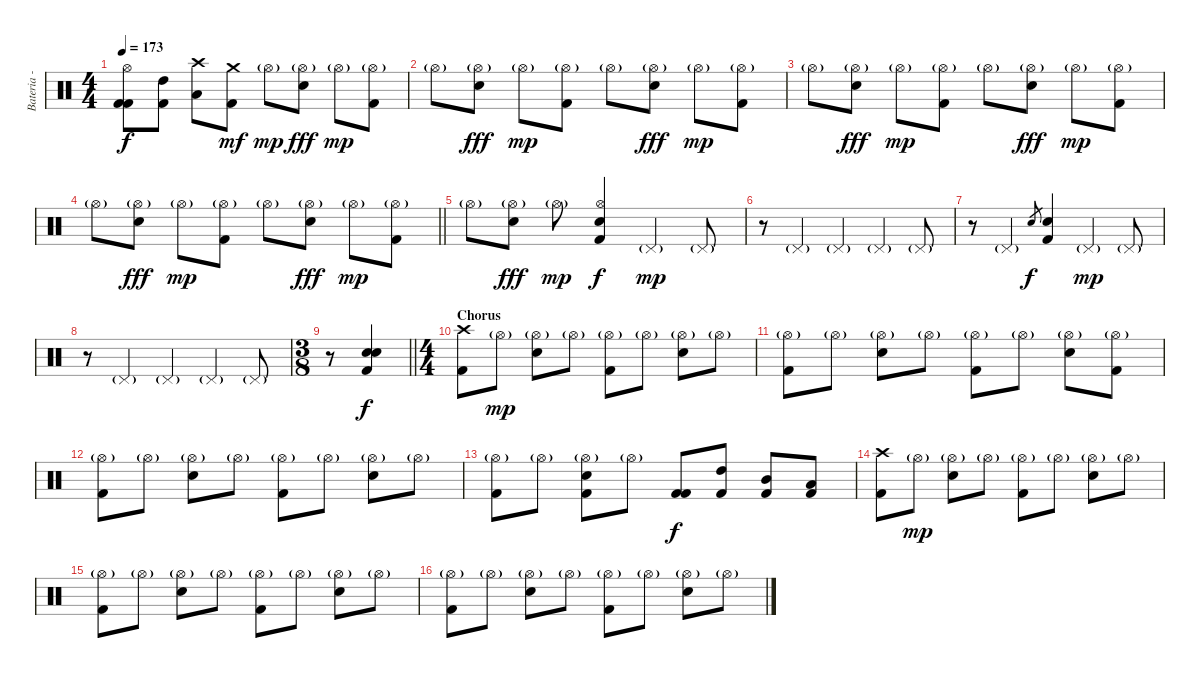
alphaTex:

\track ("Bateria - Larzon " "Bateria - ") {instrument percussion}
\staff {score}
\articulation defaults
\ts (4 4)
\tempo 173
\clef neutral
\ks c
("Kick (hit) 2" "Kick (hit) 2" "Hi-Hat (open)").8{dy f} ("High Tom (hit)" "Kick (hit) 2").8 ("Low Tom (hit)" "Crash high (hit)").8 ("Kick (hit) 2" "Crash medium (hit)").8{dy mf} "Hi-Hat (open)"{g}.8{dy mp} ("Hi-Hat (open)"{g} "Electric Snare (hit)").8{dy fff} "Hi-Hat (open)"{g}.8{dy mp} ("Kick (hit) 2" "Hi-Hat (open)"{g}).8 |
"Hi-Hat (open)"{g}.8 ("Hi-Hat (open)"{g} "Electric Snare (hit)").8{dy fff} "Hi-Hat (open)"{g}.8{dy mp} ("Kick (hit) 2" "Hi-Hat (open)"{g}).8 "Hi-Hat (open)"{g}.8 ("Hi-Hat (open)"{g} "Electric Snare (hit)").8{dy fff} "Hi-Hat (open)"{g}.8{dy mp} ("Kick (hit) 2" "Hi-Hat (open)"{g}).8 |
"Hi-Hat (open)"{g}.8 ("Hi-Hat (open)"{g} "Electric Snare (hit)").8{dy fff} "Hi-Hat (open)"{g}.8{dy mp} ("Kick (hit) 2" "Hi-Hat (open)"{g}).8 "Hi-Hat (open)"{g}.8 ("Hi-Hat (open)"{g} "Electric Snare (hit)").8{dy fff} "Hi-Hat (open)"{g}.8{dy mp} ("Kick (hit) 2" "Hi-Hat (open)"{g}).8 |
\barLineRight lightlight "Hi-Hat (open)"{g}.8
("Hi-Hat (open)"{g} "Electric Snare (hit)").8{dy fff} "Hi-Hat (open)"{g}.8{dy mp} ("Kick (hit) 2" "Hi-Hat (open)"{g}).8 "Hi-Hat (open)"{g}.8 ("Hi-Hat (open)"{g} "Electric Snare (hit)").8{dy fff} "Hi-Hat (open)"{g}.8{dy mp} ("Kick (hit) 2" "Hi-Hat (open)"{g}).8 |
"Hi-Hat (open)"{g}.8 ("Hi-Hat (open)"{g} "Electric Snare (hit)").8{dy fff} "Hi-Hat (open)"{g}.8{dy mp} ("Hi-Hat (open)" "Electric Snare (hit)" "Kick (hit) 2").4{dy f} "Pedal Hi-Hat (hit)"{g}.4{dy mp} "Pedal Hi-Hat (hit)"{g}.8 |
r.8 "Pedal Hi-Hat (hit)"{g}.4 "Pedal Hi-Hat (hit)"{g}.4 "Pedal Hi-Hat (hit)"{g}.4 "Pedal Hi-Hat (hit)"{g}.8 |
r.8 "Pedal Hi-Hat (hit)"{g}.4 "Electric Snare (hit)".8{gr dy f} ("Electric Snare (hit)" "Kick (hit) 2").4 "Pedal Hi-Hat (hit)"{g}.4{dy mp} "Pedal Hi-Hat (hit)"{g}.8 |
r.8 "Pedal Hi-Hat (hit)"{g}.4 "Pedal Hi-Hat (hit)"{g}.4 "Pedal Hi-Hat (hit)"{g}.4 "Pedal Hi-Hat (hit)"{g}.8 |
\ts (3 8)
\barLineRight lightlight
r.8 ("Electric Snare (hit)" "Kick (hit) 2" "Electric Snare (hit)").4{dy f} |
\ts (4 4)
\section ("" "Chorus")
("Kick (hit) 2" "Crash high (hit)").8 "Hi-Hat (open)"{g}.8{dy mp} ("Hi-Hat (open)"{g} "Electric Snare (hit)").8 "Hi-Hat (open)"{g}.8 ("Kick (hit) 2" "Hi-Hat (open)"{g}).8 "Hi-Hat (open)"{g}.8 ("Hi-Hat (open)"{g} "Electric Snare (hit)").8 "Hi-Hat (open)"{g}.8 |
("Kick (hit) 2" "Hi-Hat (open)"{g}).8 "Hi-Hat (open)"{g}.8 ("Hi-Hat (open)"{g} "Electric Snare (hit)").8 "Hi-Hat (open)"{g}.8 ("Kick (hit) 2" "Hi-Hat (open)"{g}).8 "Hi-Hat (open)"{g}.8 ("Hi-Hat (open)"{g} "Electric Snare (hit)").8 ("Kick (hit) 2" "Hi-Hat (open)"{g}).8 |
("Kick (hit) 2" "Hi-Hat (open)"{g}).8 "Hi-Hat (open)"{g}.8 ("Hi-Hat (open)"{g} "Electric Snare (hit)").8 "Hi-Hat (open)"{g}.8 ("Kick (hit) 2" "Hi-Hat (open)"{g}).8 "Hi-Hat (open)"{g}.8 ("Hi-Hat (open)"{g} "Electric Snare (hit)").8 "Hi-Hat (open)"{g}.8 |
("Kick (hit) 2" "Hi-Hat (open)"{g}).8 "Hi-Hat (open)"{g}.8 ("Hi-Hat (open)"{g} "Electric Snare (hit)" "Kick (hit) 2").8 "Hi-Hat (open)"{g}.8 ("Kick (hit) 2" "Kick (hit) 2").8{dy f} ("High Tom (hit)" "Kick (hit) 2").8 ("Mid Tom (hit)" "Kick (hit) 2").8 ("Low Tom (hit)" "Kick (hit) 2").8 |
("Kick (hit) 2" "Crash high (hit)").8 "Hi-Hat (open)"{g}.8{dy mp} ("Hi-Hat (open)"{g} "Electric Snare (hit)").8 "Hi-Hat (open)"{g}.8 ("Kick (hit) 2" "Hi-Hat (open)"{g}).8 "Hi-Hat (open)"{g}.8 ("Hi-Hat (open)"{g} "Electric Snare (hit)").8 "Hi-Hat (open)"{g}.8 |
("Kick (hit) 2" "Hi-Hat (open)"{g}).8 "Hi-Hat (open)"{g}.8 ("Hi-Hat (open)"{g} "Electric Snare (hit)").8 "Hi-Hat (open)"{g}.8 ("Kick (hit) 2" "Hi-Hat (open)"{g}).8 "Hi-Hat (open)"{g}.8 ("Hi-Hat (open)"{g} "Electric Snare (hit)").8 "Hi-Hat (open)"{g}.8 |
("Kick (hit) 2" "Hi-Hat (open)"{g}).8 "Hi-Hat (open)"{g}.8 ("Hi-Hat (open)"{g} "Electric Snare (hit)").8 "Hi-Hat (open)"{g}.8 ("Kick (hit) 2" "Hi-Hat (open)"{g}).8 "Hi-Hat (open)"{g}.8 ("Hi-Hat (open)"{g} "Electric Snare (hit)").8 "Hi-Hat (open)"{g}.8
